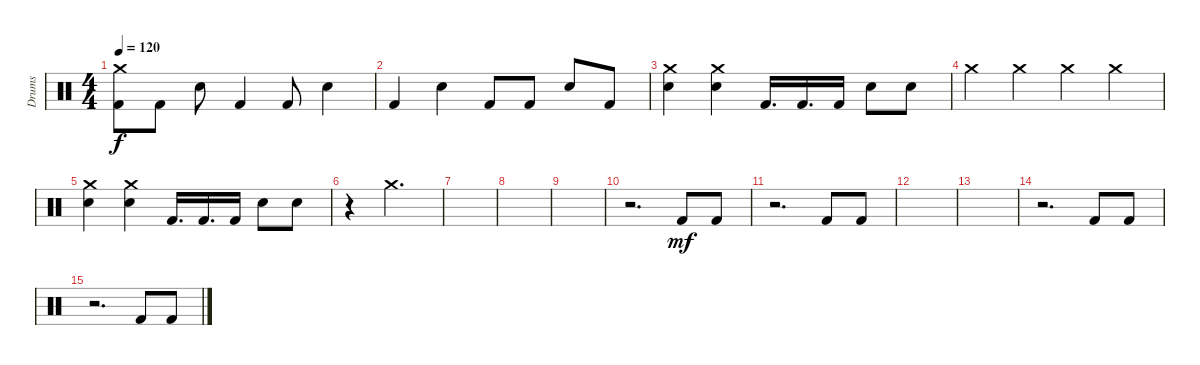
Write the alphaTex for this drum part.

\track ("Drums" "Drums") {instrument percussion}
\staff {score}
\articulation defaults
\ts (4 4)
\tempo 120
\clef neutral
\ks c
("Crash medium (hit)" "Kick (hit) 2").8{dy f} "Kick (hit) 2".8 "Electric Snare (hit)".8 "Kick (hit) 2".4 "Kick (hit) 2".8 "Electric Snare (hit)".4 |
"Kick (hit) 2".4 "Electric Snare (hit)".4 "Kick (hit) 2".8 "Kick (hit) 2".8 "Electric Snare (hit)".8 "Kick (hit) 2".8 |
("Crash medium (hit)" "Electric Snare (hit)").4 ("Crash medium (hit)" "Electric Snare (hit)").4 "Kick (hit) 2".16{d} "Kick (hit) 2".16{d} "Kick (hit) 2".16 "Electric Snare (hit)".8 "Electric Snare (hit)".8 |
"Crash medium (hit)".4 "Crash medium (hit)".4 "Crash medium (hit)".4 "Crash medium (hit)".4 |
("Crash medium (hit)" "Electric Snare (hit)").4 ("Crash medium (hit)" "Electric Snare (hit)").4 "Kick (hit) 2".16{d} "Kick (hit) 2".16{d} "Kick (hit) 2".16 "Electric Snare (hit)".8 "Electric Snare (hit)".8 |
r.4 "Crash medium (hit)".2{d} |
|
|
|
r.2{d} "Kick (hit) 2".8{dy mf} "Kick (hit) 2".8 |
r.2{d} "Kick (hit) 2".8 "Kick (hit) 2".8 |
|
|
r.2{d} "Kick (hit) 2".8 "Kick (hit) 2".8 |
r.2{d} "Kick (hit) 2".8 "Kick (hit) 2".8
